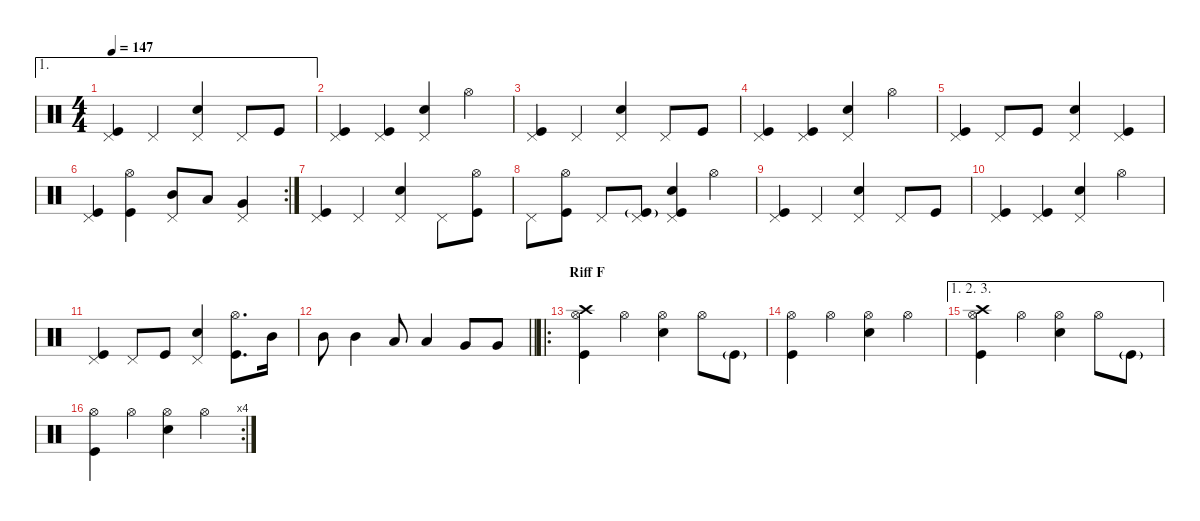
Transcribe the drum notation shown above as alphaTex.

\defaultSystemsLayout 4
\hideDynamics
\bracketExtendMode nobrackets
\singleTrackTrackNamePolicy hidden
\multiTrackTrackNamePolicy hidden
\firstSystemTrackNameMode fullname
\otherSystemsTrackNameOrientation horizontal
\track ("Percussion" "drm.") {instrument percussion}
\staff {score}
\articulation defaults
\ae 1
\ts (4 4)
\tempo 147
\clef neutral
\ks c
("Kick (hit)" "Pedal Hi-Hat (hit)").4{dy f beam Up} "Pedal Hi-Hat (hit)".4{beam Up} ("Snare (hit) 2" "Pedal Hi-Hat (hit)").4{beam Up} "Pedal Hi-Hat (hit)".8{beam Up} "Kick (hit)".8{beam Up} |
("Kick (hit)" "Pedal Hi-Hat (hit)").4{beam Up} ("Kick (hit)" "Pedal Hi-Hat (hit)").4{beam Up} ("Snare (hit) 2" "Pedal Hi-Hat (hit)").4{beam Up} "Hi-Hat (open)".4{beam Down} |
("Kick (hit)" "Pedal Hi-Hat (hit)").4{beam Up} "Pedal Hi-Hat (hit)".4{beam Up} ("Snare (hit) 2" "Pedal Hi-Hat (hit)").4{beam Up} "Pedal Hi-Hat (hit)".8{beam Up} "Kick (hit)".8{beam Up} |
("Kick (hit)" "Pedal Hi-Hat (hit)").4{beam Up} ("Kick (hit)" "Pedal Hi-Hat (hit)").4{beam Up} ("Snare (hit) 2" "Pedal Hi-Hat (hit)").4{beam Up} "Hi-Hat (open)".4{beam Down} |
("Kick (hit)" "Pedal Hi-Hat (hit)").4{beam Up} "Pedal Hi-Hat (hit)".8{beam Up} "Kick (hit)".8{beam Up} ("Snare (hit) 2" "Pedal Hi-Hat (hit)").4{beam Up} ("Kick (hit)" "Pedal Hi-Hat (hit)").4{beam Up} |
\rc 2
("Kick (hit)" "Pedal Hi-Hat (hit)").4{beam Up} ("Kick (hit)" "Hi-Hat (open)").4{beam Down} ("Mid Tom (hit)" "Pedal Hi-Hat (hit)").8{beam Up} "Low Tom (hit)".8{dy mf beam Up} ("Very Low Tom (hit)" "Pedal Hi-Hat (hit)").4{dy f beam Up} |
("Kick (hit)" "Pedal Hi-Hat (hit)").4{beam Up} "Pedal Hi-Hat (hit)".4{beam Up} ("Snare (hit) 2" "Pedal Hi-Hat (hit)").4{beam Up} "Pedal Hi-Hat (hit)".8{beam Down} ("Kick (hit)" "Hi-Hat (open)").8{beam Down} |
"Pedal Hi-Hat (hit)".8{beam Down} ("Kick (hit)" "Hi-Hat (open)").8{beam Down} "Pedal Hi-Hat (hit)".8{beam Up} ("Kick (hit)"{g} "Pedal Hi-Hat (hit)").8{beam Up} ("Snare (hit) 2" "Kick (hit)" "Pedal Hi-Hat (hit)").4{beam Up} "Hi-Hat (open)".4{beam Down} |
("Kick (hit)" "Pedal Hi-Hat (hit)").4{beam Up} "Pedal Hi-Hat (hit)".4{beam Up} ("Snare (hit) 2" "Pedal Hi-Hat (hit)").4{beam Up} "Pedal Hi-Hat (hit)".8{beam Up} "Kick (hit)".8{beam Up} |
("Kick (hit)" "Pedal Hi-Hat (hit)").4{beam Up} ("Kick (hit)" "Pedal Hi-Hat (hit)").4{beam Up} ("Snare (hit) 2" "Pedal Hi-Hat (hit)").4{beam Up} "Hi-Hat (open)".4{beam Down} |
("Kick (hit)" "Pedal Hi-Hat (hit)").4{beam Up} "Pedal Hi-Hat (hit)".8{beam Up} "Kick (hit)".8{beam Up} ("Snare (hit) 2" "Pedal Hi-Hat (hit)").4{beam Up} ("Kick (hit)" "Hi-Hat (open)").8{d beam Down} "Mid Tom (hit)".16{dy mf beam Down} |
\barLineRight lightlight "Mid Tom (hit)".8{dy ff beam Down} "Mid Tom (hit)".4{beam Down} "Low Tom (hit)".8{dy mf beam Up} "Low Tom (hit)".4{dy ff beam Up} "Very Low Tom (hit)".8{dy f beam Up} "Very Low Tom (hit)".8{beam Up}
|
\ro
\section ("" "Riff F")
("Crash high (hit)" "Kick (hit)" "Hi-Hat (open)").4{beam Down} "Hi-Hat (open)".4{dy mf beam Down} ("Snare (hit) 2" "Hi-Hat (open)").4{dy f beam Down} "Hi-Hat (open)".8{dy mf beam Down} "Kick (hit)"{g}.8{beam Down} |
("Kick (hit)" "Hi-Hat (open)").4{dy f beam Down} "Hi-Hat (open)".4{dy mf beam Down} ("Snare (hit) 2" "Hi-Hat (open)").4{dy f beam Down} "Hi-Hat (open)".4{dy mf beam Down} |
\ae (1 2 3)
("Crash high (hit)" "Kick (hit)" "Hi-Hat (open)").4{beam Down} "Hi-Hat (open)".4{beam Down} ("Snare (hit) 2" "Hi-Hat (open)").4{dy f beam Down} "Hi-Hat (open)".8{dy mf beam Down} "Kick (hit)"{g}.8{beam Down} |
\rc 4
("Kick (hit)" "Hi-Hat (open)").4{dy f beam Down} "Hi-Hat (open)".4{dy mf beam Down} ("Snare (hit) 2" "Hi-Hat (open)").4{dy f beam Down} "Hi-Hat (open)".4{dy mf beam Down}
